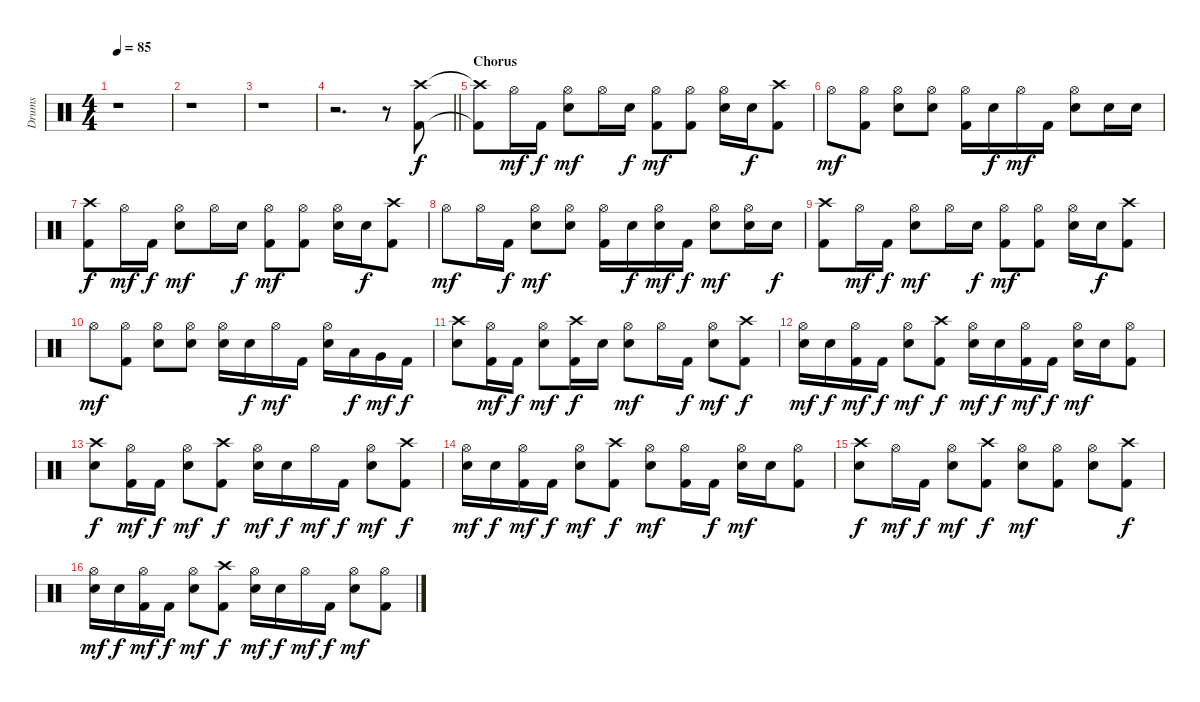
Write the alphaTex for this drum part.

\track ("Drums" "Drums") {instrument percussion}
\staff {score}
\articulation defaults
\ts (4 4)
\tempo 85
\clef neutral
\ks c
r.1{dy mf} |
r.1 |
r.1 |
\barLineRight lightlight
r.2{d} r.8 ("Crash high (hit)" "Kick (hit) 2").8{dy f} |
\section ("" "Chorus")
("Crash high (hit)"{t} "Kick (hit) 2"{t}).8 "Hi-Hat (open)".16{dy mf} "Kick (hit) 2".16{dy f} ("Hi-Hat (open)" "Electric Snare (hit)").8{dy mf} "Hi-Hat (open)".16 "Electric Snare (hit)".16{dy f} ("Hi-Hat (open)" "Kick (hit) 2").8{dy mf} ("Hi-Hat (open)" "Kick (hit) 2").8 ("Hi-Hat (open)" "Electric Snare (hit)").16 "Electric Snare (hit)".16{dy f} ("Crash high (hit)" "Kick (hit) 2").8 |
"Hi-Hat (open)".8{dy mf} ("Hi-Hat (open)" "Kick (hit) 2").8 ("Hi-Hat (open)" "Electric Snare (hit)").8 ("Hi-Hat (open)" "Electric Snare (hit)").8 ("Hi-Hat (open)" "Kick (hit) 2").16 "Electric Snare (hit)".16{dy f} "Hi-Hat (open)".16{dy mf} "Kick (hit) 2".16 ("Hi-Hat (open)" "Electric Snare (hit)").8 "Electric Snare (hit)".16 "Electric Snare (hit)".16 |
("Crash high (hit)" "Kick (hit) 2").8{dy f} "Hi-Hat (open)".16{dy mf} "Kick (hit) 2".16{dy f} ("Hi-Hat (open)" "Electric Snare (hit)").8{dy mf} "Hi-Hat (open)".16 "Electric Snare (hit)".16{dy f} ("Hi-Hat (open)" "Kick (hit) 2").8{dy mf} ("Hi-Hat (open)" "Kick (hit) 2").8 ("Hi-Hat (open)" "Electric Snare (hit)").16 "Electric Snare (hit)".16{dy f} ("Crash high (hit)" "Kick (hit) 2").8 |
"Hi-Hat (open)".8{dy mf} "Hi-Hat (open)".16 "Kick (hit) 2".16{dy f} ("Hi-Hat (open)" "Electric Snare (hit)").8{dy mf} ("Hi-Hat (open)" "Electric Snare (hit)").8 ("Hi-Hat (open)" "Kick (hit) 2").16 "Electric Snare (hit)".16{dy f} ("Hi-Hat (open)" "Electric Snare (hit)").16{dy mf} "Kick (hit) 2".16{dy f} ("Hi-Hat (open)" "Electric Snare (hit)").8{dy mf} ("Hi-Hat (open)" "Electric Snare (hit)").16 "Electric Snare (hit)".16{dy f} |
("Crash high (hit)" "Kick (hit) 2").8 "Hi-Hat (open)".16{dy mf} "Kick (hit) 2".16{dy f} ("Hi-Hat (open)" "Electric Snare (hit)").8{dy mf} "Hi-Hat (open)".16 "Electric Snare (hit)".16{dy f} ("Hi-Hat (open)" "Kick (hit) 2").8{dy mf} ("Hi-Hat (open)" "Kick (hit) 2").8 ("Hi-Hat (open)" "Electric Snare (hit)").16 "Electric Snare (hit)".16{dy f} ("Crash high (hit)" "Kick (hit) 2").8 |
"Hi-Hat (open)".8{dy mf} ("Hi-Hat (open)" "Kick (hit) 2").8 ("Hi-Hat (open)" "Electric Snare (hit)").8 ("Hi-Hat (open)" "Electric Snare (hit)").8 ("Hi-Hat (open)" "Electric Snare (hit)").16 "Electric Snare (hit)".16{dy f} "Hi-Hat (open)".16{dy mf} "Kick (hit) 2".16 ("Hi-Hat (open)" "Electric Snare (hit)").16 "Low Tom (hit)".16{dy f} "Very Low Tom (hit)".16{dy mf} "Kick (hit) 2".16{dy f} |
("Crash high (hit)" "Electric Snare (hit)").8 ("Hi-Hat (open)" "Kick (hit) 2").16{dy mf} "Kick (hit) 2".16{dy f} ("Hi-Hat (open)" "Electric Snare (hit)").8{dy mf} ("Crash high (hit)" "Kick (hit) 2").16{dy f} "Electric Snare (hit)".16 ("Hi-Hat (open)" "Electric Snare (hit)").8{dy mf} "Hi-Hat (open)".16 "Kick (hit) 2".16{dy f} ("Hi-Hat (open)" "Electric Snare (hit)").8{dy mf} ("Crash high (hit)" "Kick (hit) 2").8{dy f} |
("Hi-Hat (open)" "Electric Snare (hit)").16{dy mf} "Electric Snare (hit)".16{dy f} ("Hi-Hat (open)" "Kick (hit) 2").16{dy mf} "Kick (hit) 2".16{dy f} ("Hi-Hat (open)" "Electric Snare (hit)").8{dy mf} ("Crash high (hit)" "Kick (hit) 2").8{dy f} ("Hi-Hat (open)" "Electric Snare (hit)").16{dy mf} "Electric Snare (hit)".16{dy f} ("Hi-Hat (open)" "Kick (hit) 2").16{dy mf} "Kick (hit) 2".16{dy f} ("Hi-Hat (open)" "Electric Snare (hit)").16{dy mf} "Electric Snare (hit)".16 ("Hi-Hat (open)" "Kick (hit) 2").8 |
("Crash high (hit)" "Electric Snare (hit)").8{dy f} ("Hi-Hat (open)" "Kick (hit) 2").16{dy mf} "Kick (hit) 2".16{dy f} ("Hi-Hat (open)" "Electric Snare (hit)").8{dy mf} ("Crash high (hit)" "Kick (hit) 2").8{dy f} ("Hi-Hat (open)" "Electric Snare (hit)").16{dy mf} "Electric Snare (hit)".16{dy f} "Hi-Hat (open)".16{dy mf} "Kick (hit) 2".16{dy f} ("Hi-Hat (open)" "Electric Snare (hit)").8{dy mf} ("Crash high (hit)" "Kick (hit) 2").8{dy f} |
("Hi-Hat (open)" "Electric Snare (hit)").16{dy mf} "Electric Snare (hit)".16{dy f} ("Hi-Hat (open)" "Kick (hit) 2").16{dy mf} "Kick (hit) 2".16{dy f} ("Hi-Hat (open)" "Electric Snare (hit)").8{dy mf} ("Crash high (hit)" "Kick (hit) 2").8{dy f} ("Hi-Hat (open)" "Electric Snare (hit)").8{dy mf} ("Hi-Hat (open)" "Kick (hit) 2").16 "Kick (hit) 2".16{dy f} ("Hi-Hat (open)" "Electric Snare (hit)").16{dy mf} "Electric Snare (hit)".16 ("Hi-Hat (open)" "Kick (hit) 2").8 |
("Crash high (hit)" "Electric Snare (hit)").8{dy f} "Hi-Hat (open)".16{dy mf} "Kick (hit) 2".16{dy f} ("Hi-Hat (open)" "Electric Snare (hit)").8{dy mf} ("Crash high (hit)" "Kick (hit) 2").8{dy f} ("Hi-Hat (open)" "Electric Snare (hit)").8{dy mf} ("Hi-Hat (open)" "Kick (hit) 2").8 ("Hi-Hat (open)" "Electric Snare (hit)").8 ("Crash high (hit)" "Kick (hit) 2").8{dy f} |
("Hi-Hat (open)" "Electric Snare (hit)").16{dy mf} "Electric Snare (hit)".16{dy f} ("Hi-Hat (open)" "Kick (hit) 2").16{dy mf} "Kick (hit) 2".16{dy f} ("Hi-Hat (open)" "Electric Snare (hit)").8{dy mf} ("Crash high (hit)" "Kick (hit) 2").8{dy f} ("Hi-Hat (open)" "Electric Snare (hit)").16{dy mf} "Electric Snare (hit)".16{dy f} "Hi-Hat (open)".16{dy mf} "Kick (hit) 2".16{dy f} ("Hi-Hat (open)" "Electric Snare (hit)").8{dy mf} ("Hi-Hat (open)" "Kick (hit) 2").8
